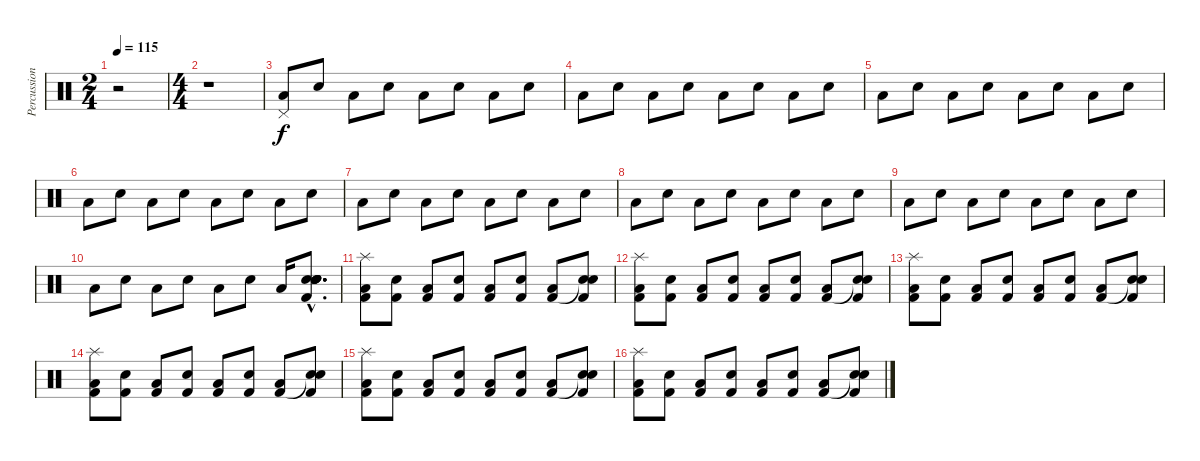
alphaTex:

\track ("Percussions" "Percussion") {instrument percussion}
\staff {score}
\articulation defaults
\ts (2 4)
\tempo 115
\clef neutral
\ks c
r.2{dy f} |
\ts (4 4)
r.1 |
("Low Floor Tom (hit)" "Pedal Hi-Hat (hit)").8 "Electric Snare (hit)".8 "Low Floor Tom (hit)".8 "Electric Snare (hit)".8 "Low Floor Tom (hit)".8 "Electric Snare (hit)".8 "Low Floor Tom (hit)".8 "Electric Snare (hit)".8 |
"Low Floor Tom (hit)".8 "Electric Snare (hit)".8 "Low Floor Tom (hit)".8 "Electric Snare (hit)".8 "Low Floor Tom (hit)".8 "Electric Snare (hit)".8 "Low Floor Tom (hit)".8 "Electric Snare (hit)".8 |
"Low Floor Tom (hit)".8 "Electric Snare (hit)".8 "Low Floor Tom (hit)".8 "Electric Snare (hit)".8 "Low Floor Tom (hit)".8 "Electric Snare (hit)".8 "Low Floor Tom (hit)".8 "Electric Snare (hit)".8 |
"Low Floor Tom (hit)".8 "Electric Snare (hit)".8 "Low Floor Tom (hit)".8 "Electric Snare (hit)".8 "Low Floor Tom (hit)".8 "Electric Snare (hit)".8 "Low Floor Tom (hit)".8 "Electric Snare (hit)".8 |
"Low Floor Tom (hit)".8 "Electric Snare (hit)".8 "Low Floor Tom (hit)".8 "Electric Snare (hit)".8 "Low Floor Tom (hit)".8 "Electric Snare (hit)".8 "Low Floor Tom (hit)".8 "Electric Snare (hit)".8 |
"Low Floor Tom (hit)".8 "Electric Snare (hit)".8 "Low Floor Tom (hit)".8 "Electric Snare (hit)".8 "Low Floor Tom (hit)".8 "Electric Snare (hit)".8 "Low Floor Tom (hit)".8 "Electric Snare (hit)".8 |
"Low Floor Tom (hit)".8 "Electric Snare (hit)".8 "Low Floor Tom (hit)".8 "Electric Snare (hit)".8 "Low Floor Tom (hit)".8 "Electric Snare (hit)".8 "Low Floor Tom (hit)".8 "Electric Snare (hit)".8 |
"Low Floor Tom (hit)".8 "Electric Snare (hit)".8 "Low Floor Tom (hit)".8 "Electric Snare (hit)".8 "Low Floor Tom (hit)".8 "Electric Snare (hit)".8 "Low Floor Tom (hit)".16 ("Electric Snare (hit)"{hac} "Snare (hit) 2"{hac} "Electric Snare (hit)"{hac} "Electric Snare (hit)"{hac} "Snare (hit) 2"{hac} "Kick (hit) 2"{hac}).8{d} |
("Splash (hit)" "Kick (hit) 2" "Low Floor Tom (hit)").8 ("Kick (hit) 2" "Electric Snare (hit)").8 ("Kick (hit) 2" "Low Floor Tom (hit)").8 ("Kick (hit) 2" "Electric Snare (hit)").8 ("Kick (hit) 2" "Low Floor Tom (hit)").8 ("Kick (hit) 2" "Electric Snare (hit)").8 ("Kick (hit) 2" "Low Floor Tom (hit)").8 ("Snare (hit)"{t} "Kick (hit) 2" "Electric Snare (hit)").8 |
("Splash (hit)" "Kick (hit) 2" "Low Floor Tom (hit)").8 ("Kick (hit) 2" "Electric Snare (hit)").8 ("Kick (hit) 2" "Low Floor Tom (hit)").8 ("Kick (hit) 2" "Electric Snare (hit)").8 ("Kick (hit) 2" "Low Floor Tom (hit)").8 ("Kick (hit) 2" "Electric Snare (hit)").8 ("Kick (hit) 2" "Low Floor Tom (hit)").8 ("Snare (hit)"{t} "Kick (hit) 2" "Electric Snare (hit)").8 |
("Splash (hit)" "Kick (hit) 2" "Low Floor Tom (hit)").8 ("Kick (hit) 2" "Electric Snare (hit)").8 ("Kick (hit) 2" "Low Floor Tom (hit)").8 ("Kick (hit) 2" "Electric Snare (hit)").8 ("Kick (hit) 2" "Low Floor Tom (hit)").8 ("Kick (hit) 2" "Electric Snare (hit)").8 ("Kick (hit) 2" "Low Floor Tom (hit)").8 ("Snare (hit)"{t} "Kick (hit) 2" "Electric Snare (hit)").8 |
("Splash (hit)" "Kick (hit) 2" "Low Floor Tom (hit)").8 ("Kick (hit) 2" "Electric Snare (hit)").8 ("Kick (hit) 2" "Low Floor Tom (hit)").8 ("Kick (hit) 2" "Electric Snare (hit)").8 ("Kick (hit) 2" "Low Floor Tom (hit)").8 ("Kick (hit) 2" "Electric Snare (hit)").8 ("Kick (hit) 2" "Low Floor Tom (hit)").8 ("Snare (hit)"{t} "Kick (hit) 2" "Electric Snare (hit)").8 |
("Splash (hit)" "Kick (hit) 2" "Low Floor Tom (hit)").8 ("Kick (hit) 2" "Electric Snare (hit)").8 ("Kick (hit) 2" "Low Floor Tom (hit)").8 ("Kick (hit) 2" "Electric Snare (hit)").8 ("Kick (hit) 2" "Low Floor Tom (hit)").8 ("Kick (hit) 2" "Electric Snare (hit)").8 ("Kick (hit) 2" "Low Floor Tom (hit)").8 ("Snare (hit)"{t} "Kick (hit) 2" "Electric Snare (hit)").8 |
("Splash (hit)" "Kick (hit) 2" "Low Floor Tom (hit)").8 ("Kick (hit) 2" "Electric Snare (hit)").8 ("Kick (hit) 2" "Low Floor Tom (hit)").8 ("Kick (hit) 2" "Electric Snare (hit)").8 ("Kick (hit) 2" "Low Floor Tom (hit)").8 ("Kick (hit) 2" "Electric Snare (hit)").8 ("Kick (hit) 2" "Low Floor Tom (hit)").8 ("Snare (hit)"{t} "Kick (hit) 2" "Electric Snare (hit)").8
